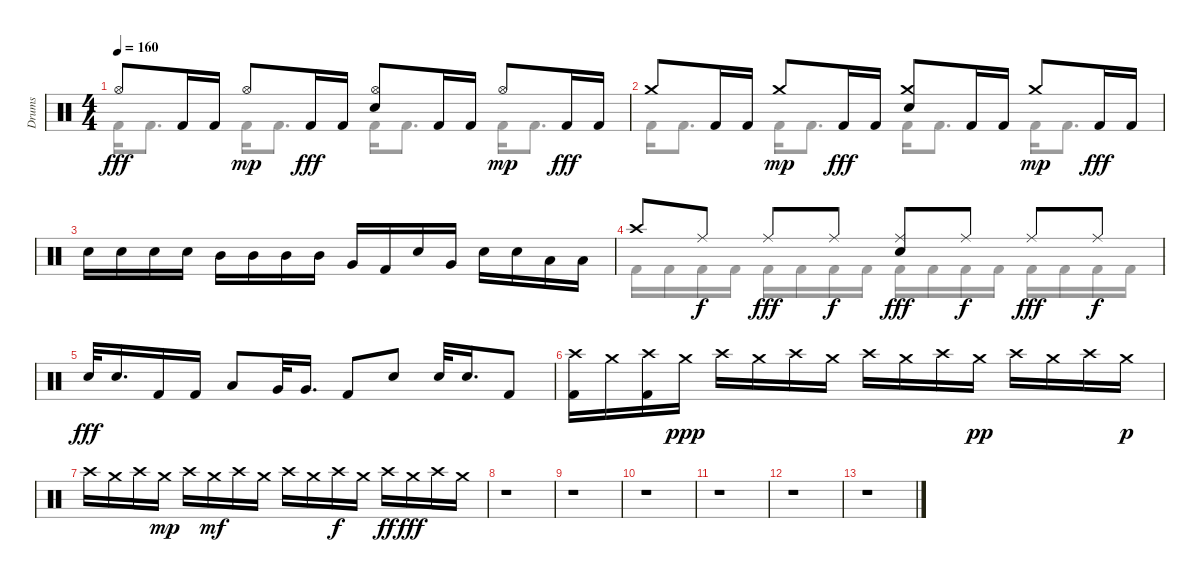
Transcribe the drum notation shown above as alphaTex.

\track ("Drums" "Drums") {instrument percussion}
\staff {score}
\articulation defaults
\voice
\ts (4 4)
\tempo 160
\clef neutral
\ks aminor "Hi-Hat (open)".8{dy fff} "Kick (hit) 2".16 "Kick (hit) 2".16 "Hi-Hat (open)".8{dy mp} "Kick (hit) 2".16{dy fff} "Kick (hit) 2".16
("Hi-Hat (open)" "Snare (hit) 2").8 "Kick (hit) 2".16 "Kick (hit) 2".16 "Hi-Hat (open)".8{dy mp} "Kick (hit) 2".16{dy fff} "Kick (hit) 2".16 |
"Crash medium (hit)".8 "Kick (hit) 2".16 "Kick (hit) 2".16 "Crash medium (hit)".8{dy mp} "Kick (hit) 2".16{dy fff} "Kick (hit) 2".16 ("Snare (hit) 2" "Crash medium (hit)").8 "Kick (hit) 2".16 "Kick (hit) 2".16 "Crash medium (hit)".8{dy mp} "Kick (hit) 2".16{dy fff} "Kick (hit) 2".16 |
"Snare (hit) 2".16 "Snare (hit) 2".16 "Snare (hit) 2".16 "Snare (hit) 2".16 "Mid Tom (hit)".16 "Mid Tom (hit)".16 "Mid Tom (hit)".16 "Mid Tom (hit)".16 "Very Low Tom (hit)".16 "Kick (hit) 2".16 "Snare (hit) 2".16 "Very Low Tom (hit)".16 "Snare (hit) 2".16 "Snare (hit) 2".16 "Low Floor Tom (hit)".16 "Low Floor Tom (hit)".16 |
"Crash high (hit)".8 "Ride (middle)".8{dy f} "Ride (middle)".8{dy fff} "Ride (middle)".8{dy f} ("Snare (hit) 2" "Ride (middle)").8{dy fff} "Ride (middle)".8{dy f} "Ride (middle)".8{dy fff} "Ride (middle)".8{dy f} |
"Snare (hit) 2".32{dy fff} "Snare (hit) 2".16{d} "Kick (hit) 2".16 "Kick (hit) 2".16 "Low Tom (hit)".8 "Very Low Tom (hit)".32 "Very Low Tom (hit)".16{d} "Kick (hit) 2".8 "Snare (hit) 2".8 "Snare (hit) 2".32 "Snare (hit) 2".16{d} "Kick (hit) 2".8 |
("Crash high (hit)" "Kick (hit) 2").16 "Crash medium (hit)".16 ("Kick (hit) 2" "Crash high (hit)").16 "Crash medium (hit)".16{dy ppp} "Crash high (hit)".16 "Crash medium (hit)".16 "Crash high (hit)".16 "Crash medium (hit)".16 "Crash high (hit)".16 "Crash medium (hit)".16 "Crash high (hit)".16 "Crash medium (hit)".16{dy pp} "Crash high (hit)".16 "Crash medium (hit)".16 "Crash high (hit)".16 "Crash medium (hit)".16{dy p} |
"Crash high (hit)".16 "Crash medium (hit)".16 "Crash high (hit)".16 "Crash medium (hit)".16{dy mp} "Crash high (hit)".16 "Crash medium (hit)".16{dy mf} "Crash high (hit)".16 "Crash medium (hit)".16 "Crash high (hit)".16 "Crash medium (hit)".16 "Crash high (hit)".16{dy f} "Crash medium (hit)".16 "Crash high (hit)".16{dy ff} "Crash medium (hit)".16{dy fff} "Crash high (hit)".16 "Crash medium (hit)".16 |
r.1 |
r.1 |
r.1 |
r.1 |
r.1 |
r.1
\voice
\clef neutral
\ottava regular
\simile none
\ks aminor "Kick (hit) 2".16{dy fff} "Kick (hit) 2".8{d} "Kick (hit) 2".16 "Kick (hit) 2".8{d} "Kick (hit) 2".16 "Kick (hit) 2".8{d} "Kick (hit) 2".16 "Kick (hit) 2".8{d}
|
"Kick (hit) 2".16 "Kick (hit) 2".8{d} "Kick (hit) 2".16 "Kick (hit) 2".8{d} "Kick (hit) 2".16 "Kick (hit) 2".8{d} "Kick (hit) 2".16 "Kick (hit) 2".8{d} |
|
"Kick (hit) 2".16 "Kick (hit) 2".16 "Kick (hit) 2".16 "Kick (hit) 2".16 "Kick (hit) 2".16 "Kick (hit) 2".16 "Kick (hit) 2".16 "Kick (hit) 2".16 "Kick (hit) 2".16 "Kick (hit) 2".16 "Kick (hit) 2".16 "Kick (hit) 2".16 "Kick (hit) 2".16 "Kick (hit) 2".16 "Kick (hit) 2".16 "Kick (hit) 2".16 |
|
|
|
|
|
|
|
|
